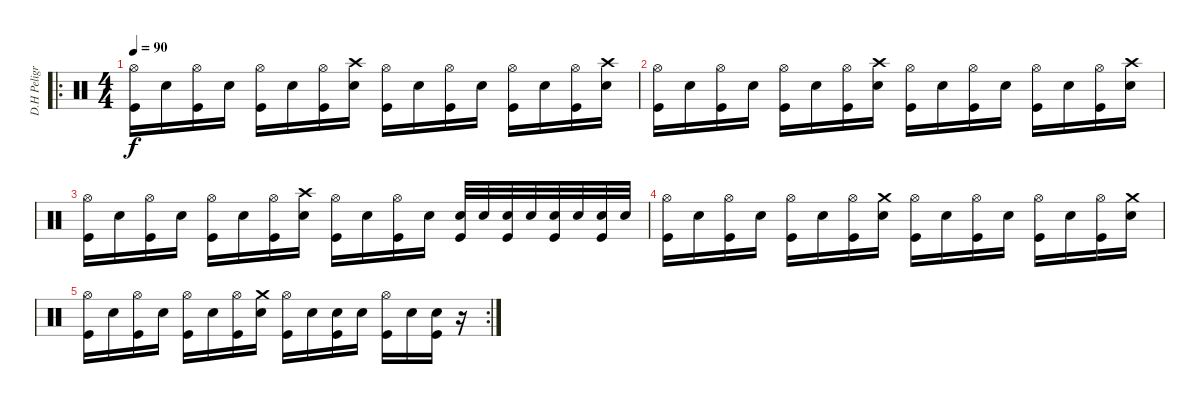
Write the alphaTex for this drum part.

\track ("D.H Peligro - Drum's" "D.H Peligr") {instrument percussion}
\staff {score}
\articulation defaults
\ro
\ts (4 4)
\tempo 90
\clef neutral
\ks c
("Hi-Hat (open)" "Kick (hit)").16{dy f} "Snare (hit) 2".16 ("Hi-Hat (open)" "Kick (hit)").16 "Snare (hit) 2".16 ("Hi-Hat (open)" "Kick (hit)").16 "Snare (hit) 2".16 ("Hi-Hat (open)" "Kick (hit)").16 ("Crash high (hit)" "Snare (hit) 2").16 ("Hi-Hat (open)" "Kick (hit)").16 "Snare (hit) 2".16 ("Hi-Hat (open)" "Kick (hit)").16 "Snare (hit) 2".16 ("Hi-Hat (open)" "Kick (hit)").16 "Snare (hit) 2".16 ("Hi-Hat (open)" "Kick (hit)").16 ("Crash high (hit)" "Snare (hit) 2").16 |
("Hi-Hat (open)" "Kick (hit)").16 "Snare (hit) 2".16 ("Hi-Hat (open)" "Kick (hit)").16 "Snare (hit) 2".16 ("Hi-Hat (open)" "Kick (hit)").16 "Snare (hit) 2".16 ("Hi-Hat (open)" "Kick (hit)").16 ("Crash high (hit)" "Snare (hit) 2").16 ("Hi-Hat (open)" "Kick (hit)").16 "Snare (hit) 2".16 ("Hi-Hat (open)" "Kick (hit)").16 "Snare (hit) 2".16 ("Hi-Hat (open)" "Kick (hit)").16 "Snare (hit) 2".16 ("Hi-Hat (open)" "Kick (hit)").16 ("Crash high (hit)" "Snare (hit) 2").16 |
("Hi-Hat (open)" "Kick (hit)").16 "Snare (hit) 2".16 ("Hi-Hat (open)" "Kick (hit)").16 "Snare (hit) 2".16 ("Hi-Hat (open)" "Kick (hit)").16 "Snare (hit) 2".16 ("Hi-Hat (open)" "Kick (hit)").16 ("Crash high (hit)" "Snare (hit) 2").16 ("Hi-Hat (open)" "Kick (hit)").16 "Snare (hit) 2".16 ("Hi-Hat (open)" "Kick (hit)").16 "Snare (hit) 2".16 ("Snare (hit) 2" "Kick (hit)").32 "Snare (hit) 2".32 ("Snare (hit) 2" "Kick (hit)").32 "Snare (hit) 2".32 ("Snare (hit) 2" "Kick (hit)").32 "Snare (hit) 2".32 ("Snare (hit) 2" "Kick (hit)").32 "Snare (hit) 2".32 |
("Hi-Hat (open)" "Kick (hit)").16 "Snare (hit) 2".16 ("Hi-Hat (open)" "Kick (hit)").16 "Snare (hit) 2".16 ("Hi-Hat (open)" "Kick (hit)").16 "Snare (hit) 2".16 ("Hi-Hat (open)" "Kick (hit)").16 ("Crash medium (hit)" "Snare (hit) 2").16 ("Hi-Hat (open)" "Kick (hit)").16 "Snare (hit) 2".16 ("Hi-Hat (open)" "Kick (hit)").16 "Snare (hit) 2".16 ("Hi-Hat (open)" "Kick (hit)").16 "Snare (hit) 2".16 ("Hi-Hat (open)" "Kick (hit)").16 ("Crash medium (hit)" "Snare (hit) 2").16 |
\rc 2
("Hi-Hat (open)" "Kick (hit)").16 "Snare (hit) 2".16 ("Hi-Hat (open)" "Kick (hit)").16 "Snare (hit) 2".16 ("Hi-Hat (open)" "Kick (hit)").16 "Snare (hit) 2".16 ("Hi-Hat (open)" "Kick (hit)").16 ("Crash medium (hit)" "Snare (hit) 2").16 ("Hi-Hat (open)" "Kick (hit)").16 "Snare (hit) 2".16 ("Snare (hit) 2" "Kick (hit)").16 "Snare (hit) 2".16 ("Hi-Hat (open)" "Kick (hit)").16 "Snare (hit) 2".16 ("Snare (hit) 2" "Kick (hit)").16 r.16
